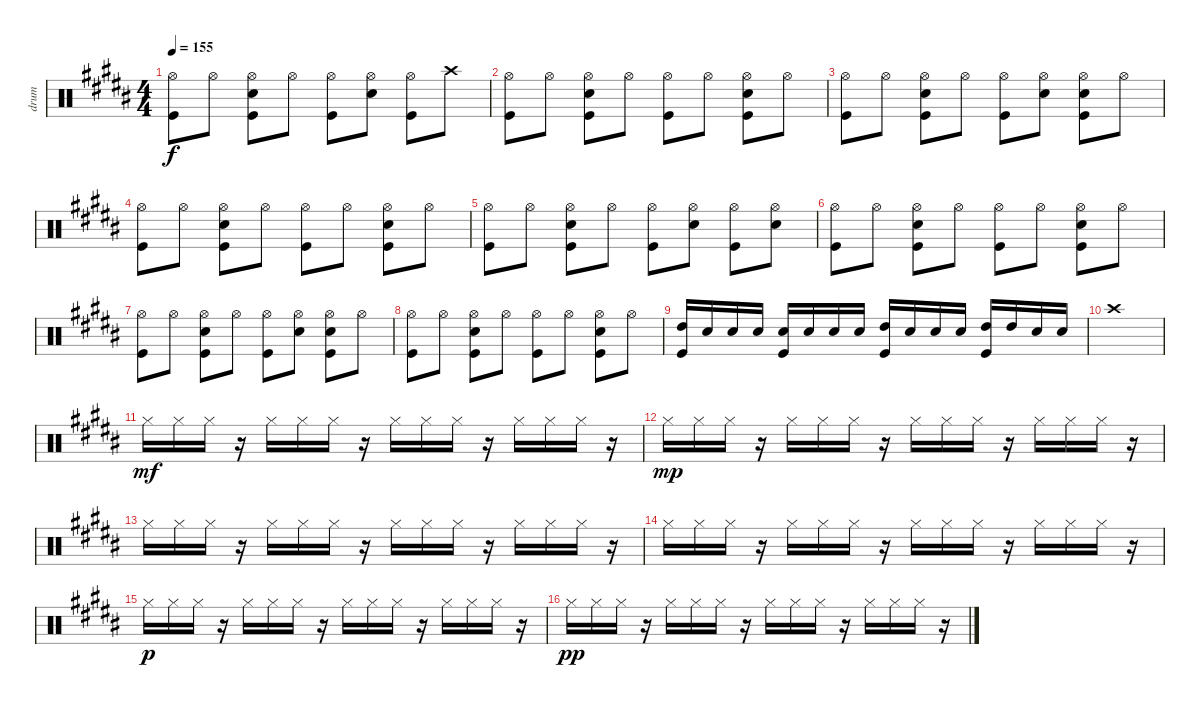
\track ("drum" "drum") {instrument percussion}
\staff {score}
\articulation defaults
\ts (4 4)
\tempo 155
\clef neutral
\ks b
("Hi-Hat (open)" "Kick (hit)").8{dy f} "Hi-Hat (open)".8 ("Hi-Hat (open)" "Snare (hit) 2" "Kick (hit)").8 "Hi-Hat (open)".8 ("Hi-Hat (open)" "Kick (hit)").8 ("Hi-Hat (open)" "Snare (hit) 2").8 ("Hi-Hat (open)" "Kick (hit)").8 "Crash high (hit)".8 |
("Hi-Hat (open)" "Kick (hit)").8 "Hi-Hat (open)".8 ("Hi-Hat (open)" "Snare (hit) 2" "Kick (hit)").8 "Hi-Hat (open)".8 ("Hi-Hat (open)" "Kick (hit)").8 "Hi-Hat (open)".8 ("Hi-Hat (open)" "Snare (hit) 2" "Kick (hit)").8 "Hi-Hat (open)".8 |
("Hi-Hat (open)" "Kick (hit)").8 "Hi-Hat (open)".8 ("Hi-Hat (open)" "Snare (hit) 2" "Kick (hit)").8 "Hi-Hat (open)".8 ("Hi-Hat (open)" "Kick (hit)").8 ("Hi-Hat (open)" "Snare (hit) 2").8 ("Hi-Hat (open)" "Snare (hit) 2" "Kick (hit)").8 "Hi-Hat (open)".8 |
("Hi-Hat (open)" "Kick (hit)").8 "Hi-Hat (open)".8 ("Hi-Hat (open)" "Snare (hit) 2" "Kick (hit)").8 "Hi-Hat (open)".8 ("Hi-Hat (open)" "Kick (hit)").8 "Hi-Hat (open)".8 ("Hi-Hat (open)" "Snare (hit) 2" "Kick (hit)").8 "Hi-Hat (open)".8 |
("Hi-Hat (open)" "Kick (hit)").8 "Hi-Hat (open)".8 ("Hi-Hat (open)" "Snare (hit) 2" "Kick (hit)").8 "Hi-Hat (open)".8 ("Hi-Hat (open)" "Kick (hit)").8 ("Hi-Hat (open)" "Snare (hit) 2").8 ("Hi-Hat (open)" "Kick (hit)").8 ("Hi-Hat (open)" "Snare (hit) 2").8 |
("Hi-Hat (open)" "Kick (hit)").8 "Hi-Hat (open)".8 ("Hi-Hat (open)" "Snare (hit) 2" "Kick (hit)").8 "Hi-Hat (open)".8 ("Hi-Hat (open)" "Kick (hit)").8 "Hi-Hat (open)".8 ("Hi-Hat (open)" "Snare (hit) 2" "Kick (hit)").8 "Hi-Hat (open)".8 |
("Hi-Hat (open)" "Kick (hit)").8 "Hi-Hat (open)".8 ("Hi-Hat (open)" "Snare (hit) 2" "Kick (hit)").8 "Hi-Hat (open)".8 ("Hi-Hat (open)" "Kick (hit)").8 ("Hi-Hat (open)" "Snare (hit) 2").8 ("Hi-Hat (open)" "Snare (hit) 2" "Kick (hit)").8 "Hi-Hat (open)".8 |
("Hi-Hat (open)" "Kick (hit)").8 "Hi-Hat (open)".8 ("Hi-Hat (open)" "Snare (hit) 2" "Kick (hit)").8 "Hi-Hat (open)".8 ("Hi-Hat (open)" "Kick (hit)").8 "Hi-Hat (open)".8 ("Hi-Hat (open)" "Snare (hit) 2" "Kick (hit)").8 "Hi-Hat (open)".8 |
("High Tom (hit)" "Kick (hit)").16 "Snare (hit) 2".16 "Snare (hit) 2".16 "Snare (hit) 2".16 ("Snare (hit) 2" "Kick (hit)").16 "Snare (hit) 2".16 "Snare (hit) 2".16 "Snare (hit) 2".16 ("High Tom (hit)" "Kick (hit)").16 "Snare (hit) 2".16 "Snare (hit) 2".16 "Snare (hit) 2".16 ("High Tom (hit)" "Kick (hit)").16 "High Tom (hit)".16 "Snare (hit) 2".16 "Snare (hit) 2".16 |
"Crash high (hit)".1 |
"Hi-Hat (closed)".16{dy mf} "Hi-Hat (closed)".16 "Hi-Hat (closed)".16 r.16 "Hi-Hat (closed)".16 "Hi-Hat (closed)".16 "Hi-Hat (closed)".16 r.16 "Hi-Hat (closed)".16 "Hi-Hat (closed)".16 "Hi-Hat (closed)".16 r.16 "Hi-Hat (closed)".16 "Hi-Hat (closed)".16 "Hi-Hat (closed)".16 r.16 |
"Hi-Hat (closed)".16{dy mp} "Hi-Hat (closed)".16 "Hi-Hat (closed)".16 r.16 "Hi-Hat (closed)".16 "Hi-Hat (closed)".16 "Hi-Hat (closed)".16 r.16 "Hi-Hat (closed)".16 "Hi-Hat (closed)".16 "Hi-Hat (closed)".16 r.16 "Hi-Hat (closed)".16 "Hi-Hat (closed)".16 "Hi-Hat (closed)".16 r.16 |
"Hi-Hat (closed)".16 "Hi-Hat (closed)".16 "Hi-Hat (closed)".16 r.16 "Hi-Hat (closed)".16 "Hi-Hat (closed)".16 "Hi-Hat (closed)".16 r.16 "Hi-Hat (closed)".16 "Hi-Hat (closed)".16 "Hi-Hat (closed)".16 r.16 "Hi-Hat (closed)".16 "Hi-Hat (closed)".16 "Hi-Hat (closed)".16 r.16 |
"Hi-Hat (closed)".16 "Hi-Hat (closed)".16 "Hi-Hat (closed)".16 r.16 "Hi-Hat (closed)".16 "Hi-Hat (closed)".16 "Hi-Hat (closed)".16 r.16 "Hi-Hat (closed)".16 "Hi-Hat (closed)".16 "Hi-Hat (closed)".16 r.16 "Hi-Hat (closed)".16 "Hi-Hat (closed)".16 "Hi-Hat (closed)".16 r.16 |
"Hi-Hat (closed)".16{dy p} "Hi-Hat (closed)".16 "Hi-Hat (closed)".16 r.16 "Hi-Hat (closed)".16 "Hi-Hat (closed)".16 "Hi-Hat (closed)".16 r.16 "Hi-Hat (closed)".16 "Hi-Hat (closed)".16 "Hi-Hat (closed)".16 r.16 "Hi-Hat (closed)".16 "Hi-Hat (closed)".16 "Hi-Hat (closed)".16 r.16 |
"Hi-Hat (closed)".16{dy pp} "Hi-Hat (closed)".16 "Hi-Hat (closed)".16 r.16 "Hi-Hat (closed)".16 "Hi-Hat (closed)".16 "Hi-Hat (closed)".16 r.16 "Hi-Hat (closed)".16 "Hi-Hat (closed)".16 "Hi-Hat (closed)".16 r.16 "Hi-Hat (closed)".16 "Hi-Hat (closed)".16 "Hi-Hat (closed)".16 r.16
